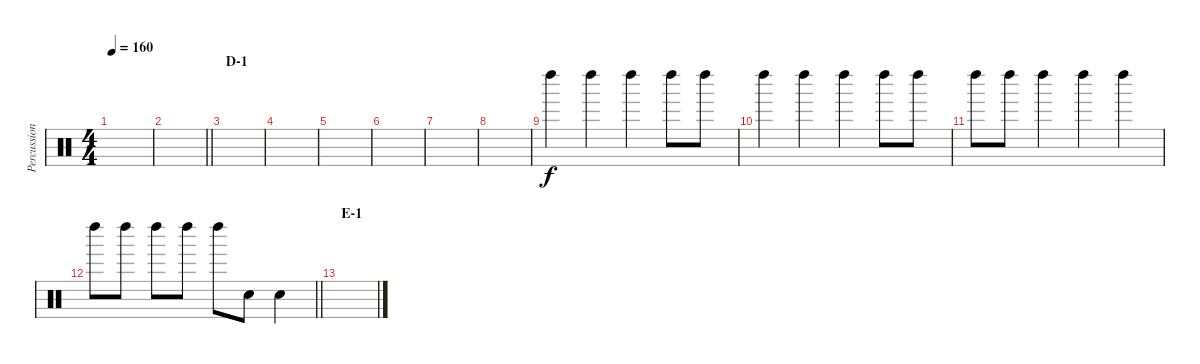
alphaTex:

\track ("Percussion A (Tainaka Ritsu)" "Percussion") {instrument percussion}
\staff {score}
\articulation defaults
\ts (4 4)
\tempo 160
\clef neutral
\ks c
|
\barLineRight lightlight
|
\section ("" "D-1")
|
|
|
|
|
|
"Left Maraca (hit)".4 "Left Maraca (hit)".4 "Left Maraca (hit)".4 "Left Maraca (hit)".8 "Left Maraca (hit)".8 |
"Left Maraca (hit)".4 "Left Maraca (hit)".4 "Left Maraca (hit)".4 "Left Maraca (hit)".8 "Left Maraca (hit)".8 |
"Left Maraca (hit)".8 "Left Maraca (hit)".8 "Left Maraca (hit)".4 "Left Maraca (hit)".4 "Left Maraca (hit)".4 |
\barLineRight lightlight "Left Maraca (hit)".8 "Left Maraca (hit)".8 "Left Maraca (hit)".8 "Left Maraca (hit)".8 "Left Maraca (hit)".8 "Hand Clap (hit)".8 "Hand Clap (hit)".4
|
\section ("" "E-1")
